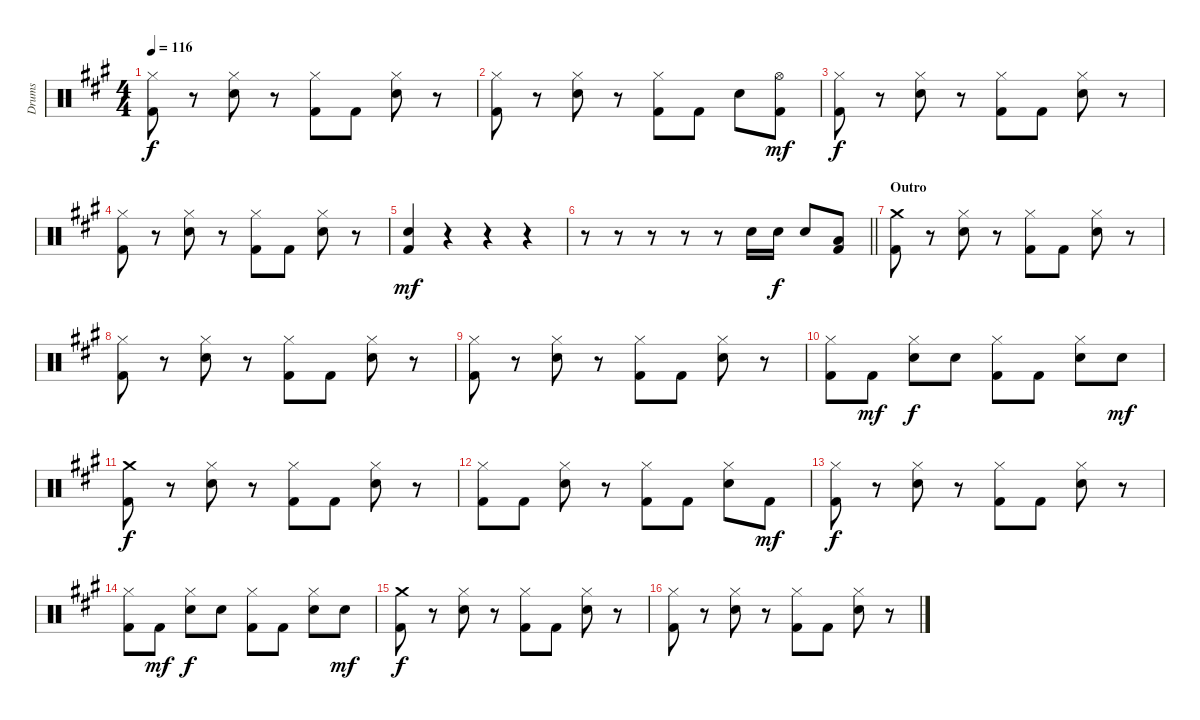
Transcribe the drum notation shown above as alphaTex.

\track ("Drums" "Drums") {instrument percussion}
\staff {score}
\articulation defaults
\ts (4 4)
\tempo 116
\clef neutral
\ks a
("Kick (hit) 2" "Hi-Hat (closed)").8{dy f} r.8 ("Snare (hit) 2" "Hi-Hat (closed)").8 r.8 ("Kick (hit) 2" "Hi-Hat (closed)").8 "Kick (hit) 2".8 ("Snare (hit) 2" "Hi-Hat (closed)").8 r.8 |
("Kick (hit) 2" "Hi-Hat (closed)").8 r.8 ("Snare (hit) 2" "Hi-Hat (closed)").8 r.8 ("Kick (hit) 2" "Hi-Hat (closed)").8 "Kick (hit) 2".8 "Snare (hit) 2".8 ("Kick (hit) 2" "Hi-Hat (open)").8{dy mf} |
("Kick (hit) 2" "Hi-Hat (closed)").8{dy f} r.8 ("Snare (hit) 2" "Hi-Hat (closed)").8 r.8 ("Kick (hit) 2" "Hi-Hat (closed)").8 "Kick (hit) 2".8 ("Snare (hit) 2" "Hi-Hat (closed)").8 r.8 |
("Kick (hit) 2" "Hi-Hat (closed)").8 r.8 ("Snare (hit) 2" "Hi-Hat (closed)").8 r.8 ("Kick (hit) 2" "Hi-Hat (closed)").8 "Kick (hit) 2".8 ("Snare (hit) 2" "Hi-Hat (closed)").8 r.8 |
("Kick (hit) 2" "Snare (hit) 2").4{dy mf} r.4 r.4 r.4 |
\barLineRight lightlight
r.8 r.8 r.8 r.8 r.8 "Snare (hit) 2".16 "Snare (hit) 2".16{dy f} "Snare (hit) 2".8 ("Low Floor Tom (hit)" "Kick (hit) 2").8 |
\section ("" "Outro")
("Crash medium (hit)" "Kick (hit) 2").8 r.8 ("Snare (hit) 2" "Hi-Hat (closed)").8 r.8 ("Kick (hit) 2" "Hi-Hat (closed)").8 "Kick (hit) 2".8 ("Snare (hit) 2" "Hi-Hat (closed)").8 r.8 |
("Kick (hit) 2" "Hi-Hat (closed)").8 r.8 ("Snare (hit) 2" "Hi-Hat (closed)").8 r.8 ("Kick (hit) 2" "Hi-Hat (closed)").8 "Kick (hit) 2".8 ("Snare (hit) 2" "Hi-Hat (closed)").8 r.8 |
("Kick (hit) 2" "Hi-Hat (closed)").8 r.8 ("Snare (hit) 2" "Hi-Hat (closed)").8 r.8 ("Kick (hit) 2" "Hi-Hat (closed)").8 "Kick (hit) 2".8 ("Snare (hit) 2" "Hi-Hat (closed)").8 r.8 |
("Kick (hit) 2" "Hi-Hat (closed)").8 "Kick (hit) 2".8{dy mf} ("Snare (hit) 2" "Hi-Hat (closed)").8{dy f} "Snare (hit) 2".8 ("Kick (hit) 2" "Hi-Hat (closed)").8 "Kick (hit) 2".8 ("Snare (hit) 2" "Hi-Hat (closed)").8 "Snare (hit) 2".8{dy mf} |
("Crash medium (hit)" "Kick (hit) 2").8{dy f} r.8 ("Snare (hit) 2" "Hi-Hat (closed)").8 r.8 ("Kick (hit) 2" "Hi-Hat (closed)").8 "Kick (hit) 2".8 ("Snare (hit) 2" "Hi-Hat (closed)").8 r.8 |
("Kick (hit) 2" "Hi-Hat (closed)").8 "Kick (hit) 2".8 ("Snare (hit) 2" "Hi-Hat (closed)").8 r.8 ("Kick (hit) 2" "Hi-Hat (closed)").8 "Kick (hit) 2".8 ("Snare (hit) 2" "Hi-Hat (closed)").8 "Kick (hit) 2".8{dy mf} |
("Kick (hit) 2" "Hi-Hat (closed)").8{dy f} r.8 ("Snare (hit) 2" "Hi-Hat (closed)").8 r.8 ("Kick (hit) 2" "Hi-Hat (closed)").8 "Kick (hit) 2".8 ("Snare (hit) 2" "Hi-Hat (closed)").8 r.8 |
("Kick (hit) 2" "Hi-Hat (closed)").8 "Kick (hit) 2".8{dy mf} ("Snare (hit) 2" "Hi-Hat (closed)").8{dy f} "Snare (hit) 2".8 ("Kick (hit) 2" "Hi-Hat (closed)").8 "Kick (hit) 2".8 ("Snare (hit) 2" "Hi-Hat (closed)").8 "Snare (hit) 2".8{dy mf} |
("Crash medium (hit)" "Kick (hit) 2").8{dy f} r.8 ("Snare (hit) 2" "Hi-Hat (closed)").8 r.8 ("Kick (hit) 2" "Hi-Hat (closed)").8 "Kick (hit) 2".8 ("Snare (hit) 2" "Hi-Hat (closed)").8 r.8 |
("Kick (hit) 2" "Hi-Hat (closed)").8 r.8 ("Snare (hit) 2" "Hi-Hat (closed)").8 r.8 ("Kick (hit) 2" "Hi-Hat (closed)").8 "Kick (hit) 2".8 ("Snare (hit) 2" "Hi-Hat (closed)").8 r.8
